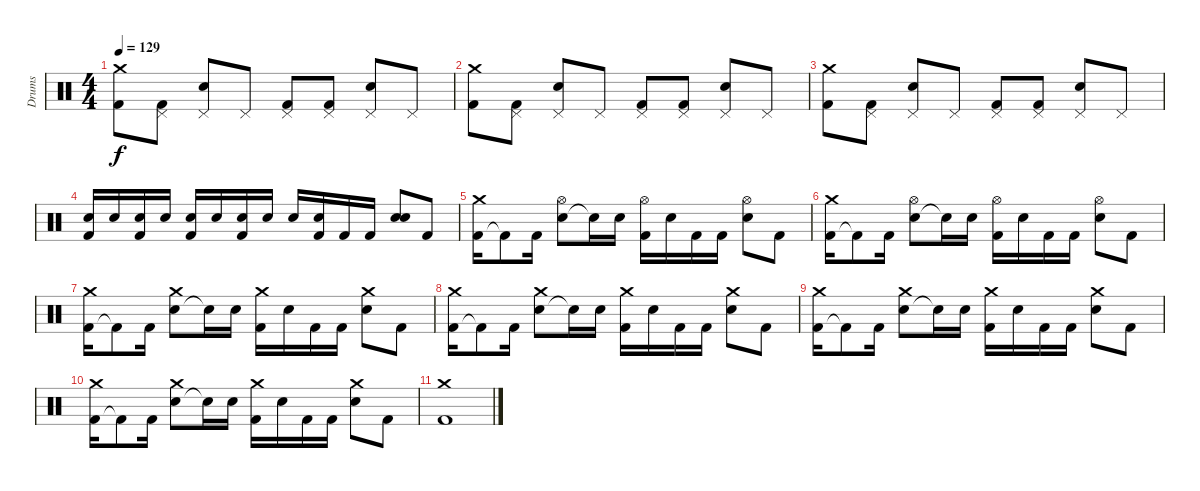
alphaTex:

\track ("Drums" "Drums") {instrument percussion}
\staff {score}
\articulation defaults
\ts (4 4)
\tempo 129
\clef neutral
\ks c
("Kick (hit) 2" "Crash medium (hit)").8{dy f} ("Kick (hit) 2" "Pedal Hi-Hat (hit)").8 ("Snare (hit) 2" "Pedal Hi-Hat (hit)").8 "Pedal Hi-Hat (hit)".8 ("Kick (hit) 2" "Pedal Hi-Hat (hit)").8 ("Kick (hit) 2" "Pedal Hi-Hat (hit)").8 ("Snare (hit) 2" "Pedal Hi-Hat (hit)").8 "Pedal Hi-Hat (hit)".8 |
("Kick (hit) 2" "Crash medium (hit)").8 ("Kick (hit) 2" "Pedal Hi-Hat (hit)").8 ("Snare (hit) 2" "Pedal Hi-Hat (hit)").8 "Pedal Hi-Hat (hit)".8 ("Kick (hit) 2" "Pedal Hi-Hat (hit)").8 ("Kick (hit) 2" "Pedal Hi-Hat (hit)").8 ("Snare (hit) 2" "Pedal Hi-Hat (hit)").8 "Pedal Hi-Hat (hit)".8 |
("Kick (hit) 2" "Crash medium (hit)").8 ("Kick (hit) 2" "Pedal Hi-Hat (hit)").8 ("Snare (hit) 2" "Pedal Hi-Hat (hit)").8 "Pedal Hi-Hat (hit)".8 ("Kick (hit) 2" "Pedal Hi-Hat (hit)").8 ("Kick (hit) 2" "Pedal Hi-Hat (hit)").8 ("Snare (hit) 2" "Pedal Hi-Hat (hit)").8 "Pedal Hi-Hat (hit)".8 |
("Snare (hit) 2" "Kick (hit) 2").16 "Snare (hit) 2".16 ("Snare (hit) 2" "Kick (hit) 2").16 "Snare (hit) 2".16 ("Snare (hit) 2" "Kick (hit) 2").16 "Snare (hit) 2".16 ("Snare (hit) 2" "Kick (hit) 2").16 "Snare (hit) 2".16 "Snare (hit) 2".16 ("Snare (hit) 2" "Kick (hit) 2").16 "Kick (hit) 2".16 "Kick (hit) 2".16 ("Snare (hit) 2" "Electric Snare (hit)").8 "Kick (hit) 2".8 |
("Kick (hit) 2" "Crash medium (hit)").16 "Kick (hit) 2"{t}.8 "Kick (hit) 2".16 ("Snare (hit) 2" "Hi-Hat (open)").8 "Snare (hit)"{t}.16 "Snare (hit) 2".16 ("Kick (hit) 2" "Hi-Hat (open)").16 "Snare (hit) 2".16 "Kick (hit) 2".16 "Kick (hit) 2".16 ("Snare (hit) 2" "Hi-Hat (open)").8 "Kick (hit) 2".8 |
("Kick (hit) 2" "Crash medium (hit)").16 "Kick (hit) 2"{t}.8 "Kick (hit) 2".16 ("Snare (hit) 2" "Hi-Hat (open)").8 "Snare (hit)"{t}.16 "Snare (hit) 2".16 ("Kick (hit) 2" "Hi-Hat (open)").16 "Snare (hit) 2".16 "Kick (hit) 2".16 "Kick (hit) 2".16 ("Snare (hit) 2" "Hi-Hat (open)").8 "Kick (hit) 2".8 |
("Kick (hit) 2" "Crash medium (hit)").16 "Kick (hit) 2"{t}.8 "Kick (hit) 2".16 ("Snare (hit) 2" "Crash medium (hit)").8 "Snare (hit)"{t}.16 "Snare (hit) 2".16 ("Kick (hit) 2" "Crash medium (hit)").16 "Snare (hit) 2".16 "Kick (hit) 2".16 "Kick (hit) 2".16 ("Snare (hit) 2" "Crash medium (hit)").8 "Kick (hit) 2".8 |
("Kick (hit) 2" "Crash medium (hit)").16 "Kick (hit) 2"{t}.8 "Kick (hit) 2".16 ("Snare (hit) 2" "Crash medium (hit)").8 "Snare (hit)"{t}.16 "Snare (hit) 2".16 ("Kick (hit) 2" "Crash medium (hit)").16 "Snare (hit) 2".16 "Kick (hit) 2".16 "Kick (hit) 2".16 ("Snare (hit) 2" "Crash medium (hit)").8 "Kick (hit) 2".8 |
("Kick (hit) 2" "Crash medium (hit)").16 "Kick (hit) 2"{t}.8 "Kick (hit) 2".16 ("Snare (hit) 2" "Crash medium (hit)").8 "Snare (hit)"{t}.16 "Snare (hit) 2".16 ("Kick (hit) 2" "Crash medium (hit)").16 "Snare (hit) 2".16 "Kick (hit) 2".16 "Kick (hit) 2".16 ("Snare (hit) 2" "Crash medium (hit)").8 "Kick (hit) 2".8 |
("Kick (hit) 2" "Crash medium (hit)").16 "Kick (hit) 2"{t}.8 "Kick (hit) 2".16 ("Snare (hit) 2" "Crash medium (hit)").8 "Snare (hit)"{t}.16 "Snare (hit) 2".16 ("Kick (hit) 2" "Crash medium (hit)").16 "Snare (hit) 2".16 "Kick (hit) 2".16 "Kick (hit) 2".16 ("Snare (hit) 2" "Crash medium (hit)").8 "Kick (hit) 2".8 |
("Kick (hit) 2" "Crash medium (hit)").1
